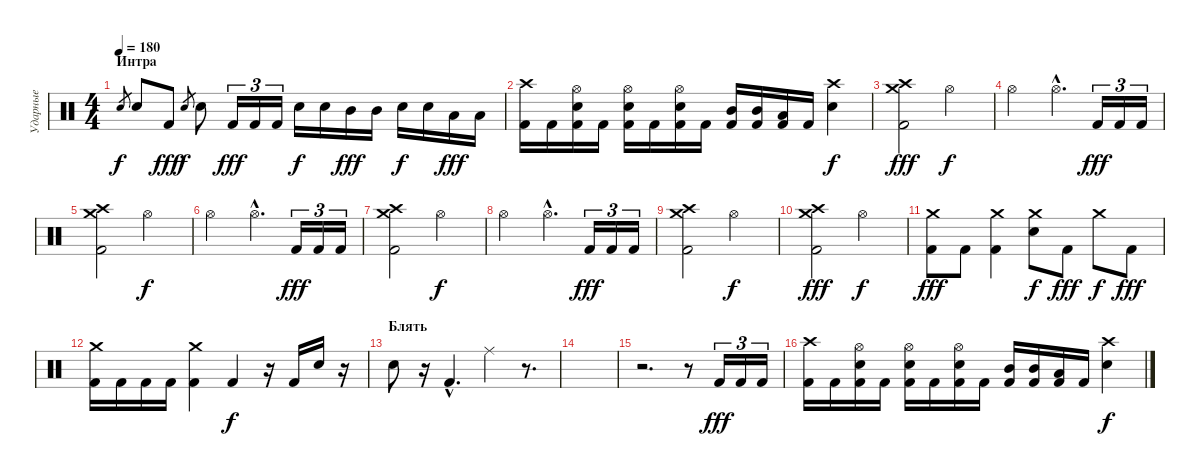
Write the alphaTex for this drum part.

\track ("Ударные" "Ударные") {instrument percussion}
\staff {score}
\articulation defaults
\ts (4 4)
\section ("" "Интра")
\tempo 180
\clef neutral
\ks c "Snare (hit) 2".8{gr dy f} "Snare (hit) 2".8 "Kick (hit) 2".8{dy fff} "Snare (hit) 2".8{gr dy f} "Snare (hit) 2".8 "Kick (hit) 2".16{tu (3 2) dy fff} "Kick (hit) 2".16{tu (3 2)} "Kick (hit) 2".16{tu (3 2)} "Snare (hit) 2".16{dy f} "Snare (hit) 2".16 "Mid Tom (hit)".16{dy fff} "Mid Tom (hit)".16 "Snare (hit) 2".16{dy f} "Snare (hit) 2".16 "Low Tom (hit)".16{dy fff} "Low Tom (hit)".16
|
("Kick (hit) 2" "Crash high (hit)").16 "Kick (hit) 2".16 ("Kick (hit) 2" "Snare (hit) 2" "Hi-Hat (open)").16 "Kick (hit) 2".16 ("Kick (hit) 2" "Snare (hit) 2" "Hi-Hat (open)").16 "Kick (hit) 2".16 ("Kick (hit) 2" "Snare (hit) 2" "Hi-Hat (open)").16 "Kick (hit) 2".16 ("Kick (hit) 2" "Mid Tom (hit)").16 ("Kick (hit) 2" "Mid Tom (hit)").16 ("Kick (hit) 2" "Low Tom (hit)").16 "Kick (hit) 2".16 ("Snare (hit) 2" "Crash high (hit)").4{dy f} |
("Kick (hit) 2" "Crash medium (hit)" "Crash high (hit)").2{dy fff} "Hi-Hat (open)".2{dy f} |
"Hi-Hat (open)".2 "Hi-Hat (open)"{hac}.4{d} "Kick (hit) 2".16{tu (3 2) dy fff} "Kick (hit) 2".16{tu (3 2)} "Kick (hit) 2".16{tu (3 2)} |
("Kick (hit) 2" "Crash medium (hit)" "Crash high (hit)").2 "Hi-Hat (open)".2{dy f} |
"Hi-Hat (open)".2 "Hi-Hat (open)"{hac}.4{d} "Kick (hit) 2".16{tu (3 2) dy fff} "Kick (hit) 2".16{tu (3 2)} "Kick (hit) 2".16{tu (3 2)} |
("Kick (hit) 2" "Crash medium (hit)" "Crash high (hit)").2 "Hi-Hat (open)".2{dy f} |
"Hi-Hat (open)".2 "Hi-Hat (open)"{hac}.4{d} "Kick (hit) 2".16{tu (3 2) dy fff} "Kick (hit) 2".16{tu (3 2)} "Kick (hit) 2".16{tu (3 2)} |
("Kick (hit) 2" "Crash medium (hit)" "Crash high (hit)").2 "Hi-Hat (open)".2{dy f} |
("Kick (hit) 2" "Crash medium (hit)" "Crash high (hit)").2{dy fff} "Hi-Hat (open)".2{dy f} |
("Kick (hit) 2" "Crash medium (hit)").8{dy fff} "Kick (hit) 2".8 ("Kick (hit) 2" "Crash medium (hit)").4 ("Snare (hit) 2" "Crash medium (hit)").8{dy f} "Kick (hit) 2".8{dy fff} "Crash medium (hit)".8{dy f} "Kick (hit) 2".8{dy fff} |
("Kick (hit) 2" "Crash medium (hit)").16 "Kick (hit) 2".16 "Kick (hit) 2".16 "Kick (hit) 2".16 ("Kick (hit) 2" "Crash medium (hit)").4 "Kick (hit) 2".4{dy f} r.16 "Kick (hit) 2".16 "Snare (hit) 2".16 r.16 |
\section ("" "Блять")
"Snare (hit) 2".8 r.16 "Kick (hit) 2"{hac}.4{d} "Ride (middle)".4 r.8{d} |
|
r.2{d} r.8 "Kick (hit) 2".16{tu (3 2) dy fff} "Kick (hit) 2".16{tu (3 2)} "Kick (hit) 2".16{tu (3 2)} |
("Kick (hit) 2" "Crash high (hit)").16 "Kick (hit) 2".16 ("Kick (hit) 2" "Snare (hit) 2" "Hi-Hat (open)").16 "Kick (hit) 2".16 ("Kick (hit) 2" "Snare (hit) 2" "Hi-Hat (open)").16 "Kick (hit) 2".16 ("Kick (hit) 2" "Snare (hit) 2" "Hi-Hat (open)").16 "Kick (hit) 2".16 ("Kick (hit) 2" "Mid Tom (hit)").16 ("Kick (hit) 2" "Mid Tom (hit)").16 ("Kick (hit) 2" "Low Tom (hit)").16 "Kick (hit) 2".16 ("Snare (hit) 2" "Crash high (hit)").4{dy f}
